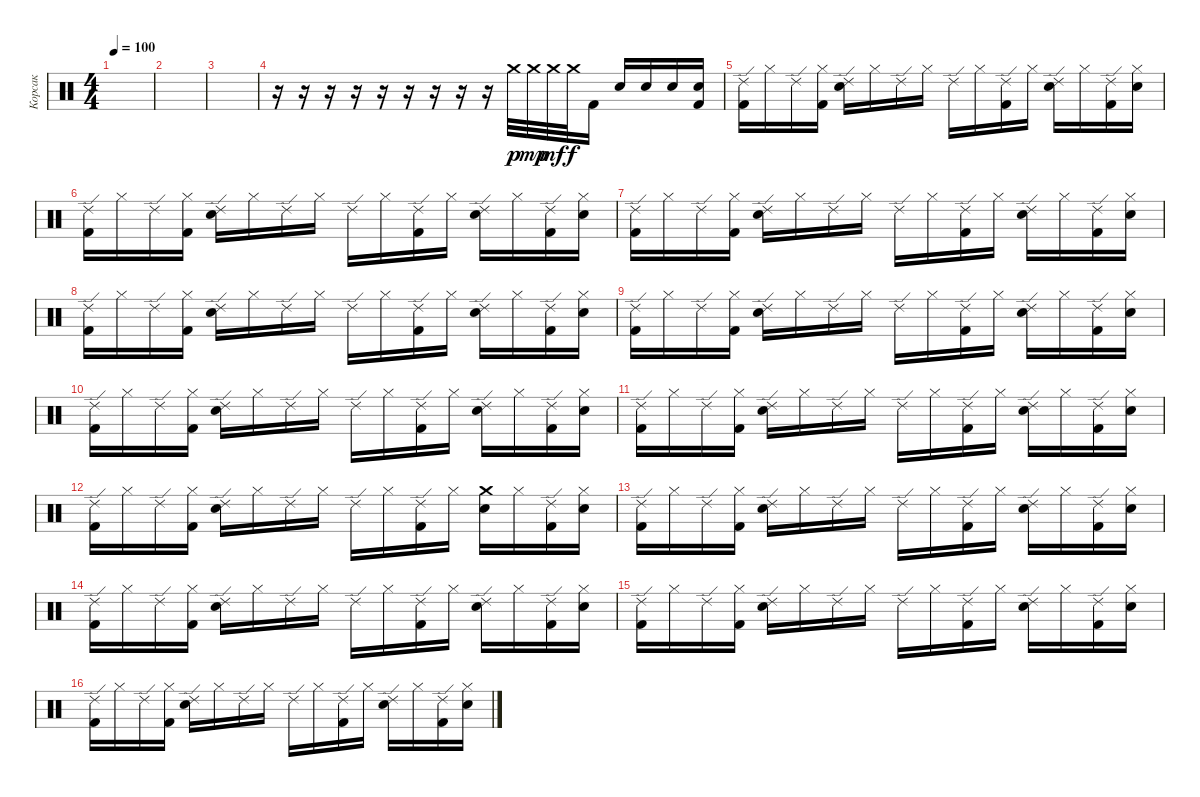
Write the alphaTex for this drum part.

\track ("Корсак" "Корсак") {instrument percussion}
\staff {score}
\articulation defaults
\ts (4 4)
\tempo 100
\clef neutral
\ks c
|
|
|
r.16 r.16 r.16 r.16 r.16 r.16 r.16 r.16 r.16 "Crash medium (hit)".32{dy p} "Crash medium (hit)".32{dy mp} "Crash medium (hit)".32{dy mf} "Crash medium (hit)".32{dy f} "Kick (hit) 2".16 "Electric Snare (hit)".16 "Electric Snare (hit)".16 "Electric Snare (hit)".16 ("Electric Snare (hit)" "Kick (hit) 2").16 |
("Ride (edge) 2" "Kick (hit) 2").16 "Hi-Hat (closed)".16 "Ride (edge) 2".16 ("Hi-Hat (closed)" "Kick (hit) 2").16 ("Ride (edge) 2" "Electric Snare (hit)").16 "Hi-Hat (closed)".16 "Ride (edge) 2".16 "Hi-Hat (closed)".16 "Ride (edge) 2".16 "Hi-Hat (closed)".16 ("Ride (edge) 2" "Kick (hit) 2").16 "Hi-Hat (closed)".16 ("Ride (edge) 2" "Electric Snare (hit)").16 "Hi-Hat (closed)".16 ("Ride (edge) 2" "Kick (hit) 2").16 ("Hi-Hat (closed)" "Electric Snare (hit)").16 |
("Ride (edge) 2" "Kick (hit) 2").16 "Hi-Hat (closed)".16 "Ride (edge) 2".16 ("Hi-Hat (closed)" "Kick (hit) 2").16 ("Ride (edge) 2" "Electric Snare (hit)").16 "Hi-Hat (closed)".16 "Ride (edge) 2".16 "Hi-Hat (closed)".16 "Ride (edge) 2".16 "Hi-Hat (closed)".16 ("Ride (edge) 2" "Kick (hit) 2").16 "Hi-Hat (closed)".16 ("Ride (edge) 2" "Electric Snare (hit)").16 "Hi-Hat (closed)".16 ("Ride (edge) 2" "Kick (hit) 2").16 ("Hi-Hat (closed)" "Electric Snare (hit)").16 |
("Ride (edge) 2" "Kick (hit) 2").16 "Hi-Hat (closed)".16 "Ride (edge) 2".16 ("Hi-Hat (closed)" "Kick (hit) 2").16 ("Ride (edge) 2" "Electric Snare (hit)").16 "Hi-Hat (closed)".16 "Ride (edge) 2".16 "Hi-Hat (closed)".16 "Ride (edge) 2".16 "Hi-Hat (closed)".16 ("Ride (edge) 2" "Kick (hit) 2").16 "Hi-Hat (closed)".16 ("Ride (edge) 2" "Electric Snare (hit)").16 "Hi-Hat (closed)".16 ("Ride (edge) 2" "Kick (hit) 2").16 ("Hi-Hat (closed)" "Electric Snare (hit)").16 |
("Ride (edge) 2" "Kick (hit) 2").16 "Hi-Hat (closed)".16 "Ride (edge) 2".16 ("Hi-Hat (closed)" "Kick (hit) 2").16 ("Ride (edge) 2" "Electric Snare (hit)").16 "Hi-Hat (closed)".16 "Ride (edge) 2".16 "Hi-Hat (closed)".16 "Ride (edge) 2".16 "Hi-Hat (closed)".16 ("Ride (edge) 2" "Kick (hit) 2").16 "Hi-Hat (closed)".16 ("Ride (edge) 2" "Electric Snare (hit)").16 "Hi-Hat (closed)".16 ("Ride (edge) 2" "Kick (hit) 2").16 ("Hi-Hat (closed)" "Electric Snare (hit)").16 |
("Ride (edge) 2" "Kick (hit) 2").16 "Hi-Hat (closed)".16 "Ride (edge) 2".16 ("Hi-Hat (closed)" "Kick (hit) 2").16 ("Ride (edge) 2" "Electric Snare (hit)").16 "Hi-Hat (closed)".16 "Ride (edge) 2".16 "Hi-Hat (closed)".16 "Ride (edge) 2".16 "Hi-Hat (closed)".16 ("Ride (edge) 2" "Kick (hit) 2").16 "Hi-Hat (closed)".16 ("Ride (edge) 2" "Electric Snare (hit)").16 "Hi-Hat (closed)".16 ("Ride (edge) 2" "Kick (hit) 2").16 ("Hi-Hat (closed)" "Electric Snare (hit)").16 |
("Ride (edge) 2" "Kick (hit) 2").16 "Hi-Hat (closed)".16 "Ride (edge) 2".16 ("Hi-Hat (closed)" "Kick (hit) 2").16 ("Ride (edge) 2" "Electric Snare (hit)").16 "Hi-Hat (closed)".16 "Ride (edge) 2".16 "Hi-Hat (closed)".16 "Ride (edge) 2".16 "Hi-Hat (closed)".16 ("Ride (edge) 2" "Kick (hit) 2").16 "Hi-Hat (closed)".16 ("Ride (edge) 2" "Electric Snare (hit)").16 "Hi-Hat (closed)".16 ("Ride (edge) 2" "Kick (hit) 2").16 ("Hi-Hat (closed)" "Electric Snare (hit)").16 |
("Ride (edge) 2" "Kick (hit) 2").16 "Hi-Hat (closed)".16 "Ride (edge) 2".16 ("Hi-Hat (closed)" "Kick (hit) 2").16 ("Ride (edge) 2" "Electric Snare (hit)").16 "Hi-Hat (closed)".16 "Ride (edge) 2".16 "Hi-Hat (closed)".16 "Ride (edge) 2".16 "Hi-Hat (closed)".16 ("Ride (edge) 2" "Kick (hit) 2").16 "Hi-Hat (closed)".16 ("Ride (edge) 2" "Electric Snare (hit)").16 "Hi-Hat (closed)".16 ("Ride (edge) 2" "Kick (hit) 2").16 ("Hi-Hat (closed)" "Electric Snare (hit)").16 |
("Ride (edge) 2" "Kick (hit) 2").16 "Hi-Hat (closed)".16 "Ride (edge) 2".16 ("Hi-Hat (closed)" "Kick (hit) 2").16 ("Ride (edge) 2" "Electric Snare (hit)").16 "Hi-Hat (closed)".16 "Ride (edge) 2".16 "Hi-Hat (closed)".16 "Ride (edge) 2".16 "Hi-Hat (closed)".16 ("Ride (edge) 2" "Kick (hit) 2").16 "Hi-Hat (closed)".16 ("Crash medium (hit)" "Electric Snare (hit)").16 "Hi-Hat (closed)".16 ("Ride (edge) 2" "Kick (hit) 2").16 ("Hi-Hat (closed)" "Electric Snare (hit)").16 |
("Ride (edge) 2" "Kick (hit) 2").16 "Hi-Hat (closed)".16 "Ride (edge) 2".16 ("Hi-Hat (closed)" "Kick (hit) 2").16 ("Ride (edge) 2" "Electric Snare (hit)").16 "Hi-Hat (closed)".16 "Ride (edge) 2".16 "Hi-Hat (closed)".16 "Ride (edge) 2".16 "Hi-Hat (closed)".16 ("Ride (edge) 2" "Kick (hit) 2").16 "Hi-Hat (closed)".16 ("Ride (edge) 2" "Electric Snare (hit)").16 "Hi-Hat (closed)".16 ("Ride (edge) 2" "Kick (hit) 2").16 ("Hi-Hat (closed)" "Electric Snare (hit)").16 |
("Ride (edge) 2" "Kick (hit) 2").16 "Hi-Hat (closed)".16 "Ride (edge) 2".16 ("Hi-Hat (closed)" "Kick (hit) 2").16 ("Ride (edge) 2" "Electric Snare (hit)").16 "Hi-Hat (closed)".16 "Ride (edge) 2".16 "Hi-Hat (closed)".16 "Ride (edge) 2".16 "Hi-Hat (closed)".16 ("Ride (edge) 2" "Kick (hit) 2").16 "Hi-Hat (closed)".16 ("Ride (edge) 2" "Electric Snare (hit)").16 "Hi-Hat (closed)".16 ("Ride (edge) 2" "Kick (hit) 2").16 ("Hi-Hat (closed)" "Electric Snare (hit)").16 |
("Ride (edge) 2" "Kick (hit) 2").16 "Hi-Hat (closed)".16 "Ride (edge) 2".16 ("Hi-Hat (closed)" "Kick (hit) 2").16 ("Ride (edge) 2" "Electric Snare (hit)").16 "Hi-Hat (closed)".16 "Ride (edge) 2".16 "Hi-Hat (closed)".16 "Ride (edge) 2".16 "Hi-Hat (closed)".16 ("Ride (edge) 2" "Kick (hit) 2").16 "Hi-Hat (closed)".16 ("Ride (edge) 2" "Electric Snare (hit)").16 "Hi-Hat (closed)".16 ("Ride (edge) 2" "Kick (hit) 2").16 ("Hi-Hat (closed)" "Electric Snare (hit)").16 |
("Ride (edge) 2" "Kick (hit) 2").16 "Hi-Hat (closed)".16 "Ride (edge) 2".16 ("Hi-Hat (closed)" "Kick (hit) 2").16 ("Ride (edge) 2" "Electric Snare (hit)").16 "Hi-Hat (closed)".16 "Ride (edge) 2".16 "Hi-Hat (closed)".16 "Ride (edge) 2".16 "Hi-Hat (closed)".16 ("Ride (edge) 2" "Kick (hit) 2").16 "Hi-Hat (closed)".16 ("Ride (edge) 2" "Electric Snare (hit)").16 "Hi-Hat (closed)".16 ("Ride (edge) 2" "Kick (hit) 2").16 ("Hi-Hat (closed)" "Electric Snare (hit)").16
